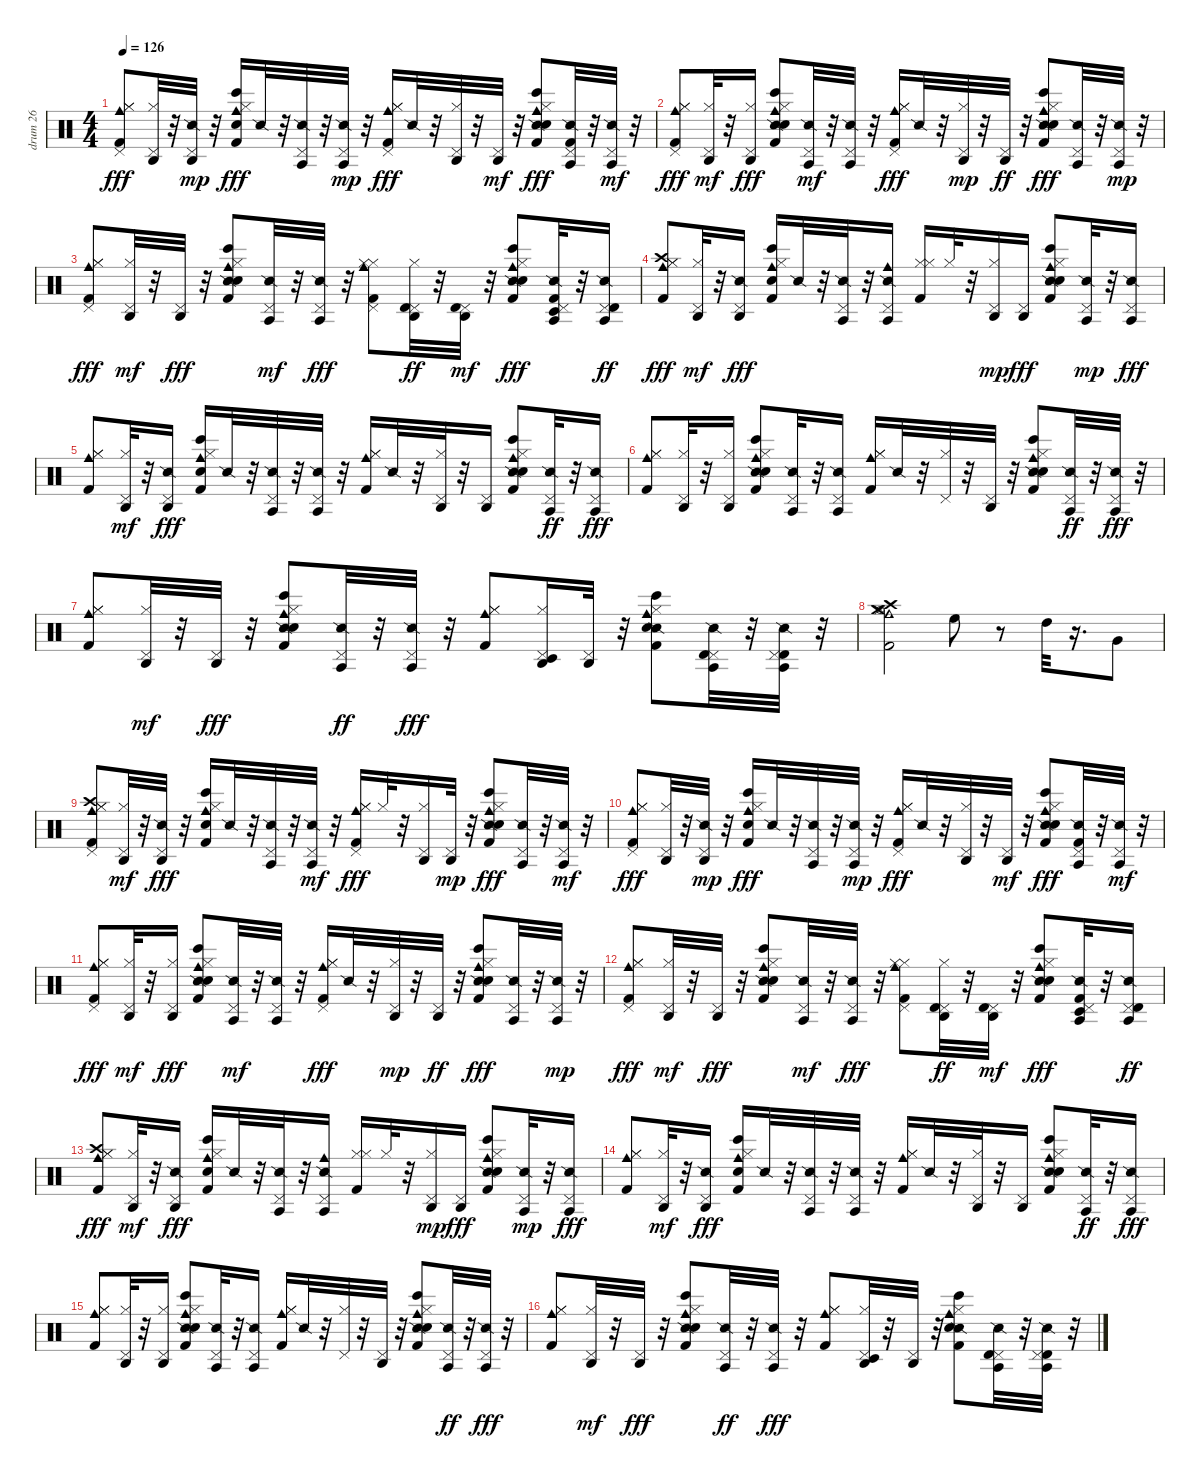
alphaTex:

\track ("drum 26" "drum 26") {instrument percussion}
\staff {score}
\articulation defaults
\ts (4 4)
\tempo 126
\clef neutral
\ks c
("Hi-Hat (closed)" "Kick (hit) 2" "Hi-Hat (closed)" "Pedal Hi-Hat (hit)" "Cowbell medium (hit)").8{dy fff} ("Hi-Hat (closed)" "Pedal Hi-Hat (hit)" "Agogo high (hit)").32 r.32 ("Snare (side stick) 2" "Pedal Hi-Hat (hit)" "Agogo high (hit)").32{dy mp} r.32 ("Bongo High (hit)" "Kick (hit) 2" "Hand Clap (hit)" "Hi-Hat (closed)" "Cowbell medium (hit)").16{dy fff} "Snare (side stick) 2".32 r.32 ("Snare (side stick) 2" "Pedal Hi-Hat (hit)" "Agogo tow (hit)").32 r.32 ("Snare (side stick) 2" "Pedal Hi-Hat (hit)" "Agogo tow (hit)").32{dy mp} r.32 ("Hi-Hat (closed)" "Kick (hit) 2" "Hi-Hat (closed)" "Pedal Hi-Hat (hit)" "Cowbell medium (hit)").16{dy fff} "Snare (side stick) 2".32 r.32 ("Hi-Hat (closed)" "Pedal Hi-Hat (hit)" "Agogo high (hit)").32 r.32 ("Pedal Hi-Hat (hit)" "Agogo high (hit)").32{dy mf} r.32 ("Bongo High (hit)" "Snare (side stick) 2" "Kick (hit) 2" "Hand Clap (hit)" "Hi-Hat (closed)" "Cowbell medium (hit)").8{dy fff} ("Snare (side stick) 2" "Kick (hit) 2" "Pedal Hi-Hat (hit)" "Agogo tow (hit)").32 r.32 ("Snare (side stick) 2" "Pedal Hi-Hat (hit)" "Agogo tow (hit)").32{dy mf} r.32 |
("Hi-Hat (closed)" "Kick (hit) 2" "Hi-Hat (closed)" "Pedal Hi-Hat (hit)" "Cowbell medium (hit)").8{dy fff} ("Hi-Hat (closed)" "Pedal Hi-Hat (hit)" "Agogo high (hit)").32{dy mf} r.32 ("Hi-Hat (closed)" "Pedal Hi-Hat (hit)" "Agogo high (hit)").16{dy fff} ("Bongo High (hit)" "Snare (side stick) 2" "Kick (hit) 2" "Hand Clap (hit)" "Hi-Hat (closed)" "Cowbell medium (hit)").8 ("Snare (side stick) 2" "Pedal Hi-Hat (hit)" "Agogo tow (hit)").32{dy mf} r.32 ("Snare (side stick) 2" "Pedal Hi-Hat (hit)" "Agogo tow (hit)").32 r.32 ("Hi-Hat (closed)" "Kick (hit) 2" "Hi-Hat (closed)" "Pedal Hi-Hat (hit)" "Cowbell medium (hit)").16{dy fff} "Snare (side stick) 2".32 r.32 ("Hi-Hat (closed)" "Pedal Hi-Hat (hit)" "Agogo high (hit)").32{dy mp} r.32 ("Pedal Hi-Hat (hit)" "Agogo high (hit)").32{dy ff} r.32 ("Bongo High (hit)" "Snare (side stick) 2" "Kick (hit) 2" "Hand Clap (hit)" "Hi-Hat (closed)" "Cowbell medium (hit)").8{dy fff} ("Snare (side stick) 2" "Pedal Hi-Hat (hit)" "Agogo tow (hit)").32 r.32 ("Snare (side stick) 2" "Pedal Hi-Hat (hit)" "Agogo tow (hit)").32{dy mp} r.32 |
("Hi-Hat (closed)" "Kick (hit) 2" "Hi-Hat (closed)" "Pedal Hi-Hat (hit)" "Cowbell medium (hit)").8{dy fff} ("Hi-Hat (closed)" "Pedal Hi-Hat (hit)" "Agogo high (hit)").32{dy mf} r.32 ("Pedal Hi-Hat (hit)" "Agogo high (hit)").32{dy fff} r.32 ("Bongo High (hit)" "Snare (side stick) 2" "Kick (hit) 2" "Hand Clap (hit)" "Hi-Hat (closed)" "Cowbell medium (hit)").8 ("Snare (side stick) 2" "Pedal Hi-Hat (hit)" "Agogo tow (hit)").32{dy mf} r.32 ("Snare (side stick) 2" "Pedal Hi-Hat (hit)" "Agogo tow (hit)").32{dy fff} r.32 ("Hi-Hat (closed)" "Kick (hit) 2" "Hi-Hat (closed)" "Pedal Hi-Hat (hit)" "Cowbell medium (hit)").8 ("Hi-Hat (closed)" "Pedal Hi-Hat (hit)" "Timbale high (hit)" "Agogo high (hit)").32{dy ff} r.32 ("Pedal Hi-Hat (hit)" "Timbale high (hit)" "Agogo high (hit)").32{dy mf} r.32 ("Bongo High (hit)" "Snare (side stick) 2" "Kick (hit) 2" "Hand Clap (hit)" "Hi-Hat (closed)" "Cowbell medium (hit)").8{dy fff} ("Snare (side stick) 2" "Kick (hit) 2" "Pedal Hi-Hat (hit)" "Timbale low (hit)" "Agogo tow (hit)").32 r.32 ("Snare (side stick) 2" "Pedal Hi-Hat (hit)" "Timbale high (hit)" "Agogo tow (hit)").16{dy ff} |
("Hi-Hat (closed)" "Kick (hit) 2" "Hi-Hat (closed)" "Crash high (hit)" "Cowbell medium (hit)").8{dy fff} ("Hi-Hat (closed)" "Pedal Hi-Hat (hit)" "Agogo high (hit)").32{dy mf} r.32 ("Snare (side stick) 2" "Agogo high (hit)" "Pedal Hi-Hat (hit)").16{dy fff} ("Bongo High (hit)" "Kick (hit) 2" "Hand Clap (hit)" "Hi-Hat (closed)" "Cowbell medium (hit)").16 "Snare (side stick) 2".32 r.32 ("Snare (side stick) 2" "Pedal Hi-Hat (hit)" "Agogo tow (hit)").32 r.32 ("Snare (side stick) 2" "Cowbell medium (hit)" "Agogo tow (hit)" "Pedal Hi-Hat (hit)").16 ("Hi-Hat (closed)" "Kick (hit) 2" "Hi-Hat (closed)").16 "Hi-Hat (closed)".32 r.32 ("Hi-Hat (closed)" "Pedal Hi-Hat (hit)" "Agogo high (hit)").16{dy mp} ("Agogo high (hit)" "Pedal Hi-Hat (hit)").16{dy fff} ("Bongo High (hit)" "Snare (side stick) 2" "Kick (hit) 2" "Hand Clap (hit)" "Hi-Hat (closed)" "Cowbell medium (hit)").8 ("Snare (side stick) 2" "Pedal Hi-Hat (hit)" "Agogo tow (hit)").32{dy mp} r.32 ("Snare (side stick) 2" "Agogo tow (hit)" "Pedal Hi-Hat (hit)").16{dy fff} |
("Hi-Hat (closed)" "Kick (hit) 2" "Hi-Hat (closed)" "Cowbell medium (hit)").8 ("Hi-Hat (closed)" "Pedal Hi-Hat (hit)" "Agogo high (hit)").32{dy mf} r.32 ("Snare (side stick) 2" "Agogo high (hit)" "Pedal Hi-Hat (hit)").16{dy fff} ("Bongo High (hit)" "Kick (hit) 2" "Hand Clap (hit)" "Hi-Hat (closed)" "Cowbell medium (hit)").16 "Snare (side stick) 2".32 r.32 ("Snare (side stick) 2" "Pedal Hi-Hat (hit)" "Agogo tow (hit)").32 r.32 ("Snare (side stick) 2" "Agogo tow (hit)" "Pedal Hi-Hat (hit)").32 r.32 ("Hi-Hat (closed)" "Kick (hit) 2" "Hi-Hat (closed)" "Cowbell medium (hit)").16 "Snare (side stick) 2".32 r.32 ("Hi-Hat (closed)" "Pedal Hi-Hat (hit)" "Agogo high (hit)").32 r.32 ("Agogo high (hit)" "Pedal Hi-Hat (hit)").16 ("Bongo High (hit)" "Snare (side stick) 2" "Kick (hit) 2" "Hand Clap (hit)" "Hi-Hat (closed)" "Cowbell medium (hit)").8 ("Snare (side stick) 2" "Pedal Hi-Hat (hit)" "Agogo tow (hit)").32{dy ff} r.32 ("Snare (side stick) 2" "Agogo tow (hit)" "Pedal Hi-Hat (hit)").16{dy fff} |
("Hi-Hat (closed)" "Kick (hit) 2" "Hi-Hat (closed)" "Cowbell medium (hit)").8 ("Hi-Hat (closed)" "Pedal Hi-Hat (hit)" "Agogo high (hit)").32 r.32 ("Hi-Hat (closed)" "Agogo high (hit)" "Pedal Hi-Hat (hit)").16 ("Bongo High (hit)" "Snare (side stick) 2" "Kick (hit) 2" "Hand Clap (hit)" "Hi-Hat (closed)" "Cowbell medium (hit)").8 ("Snare (side stick) 2" "Pedal Hi-Hat (hit)" "Agogo tow (hit)").32 r.32 ("Snare (side stick) 2" "Agogo tow (hit)" "Pedal Hi-Hat (hit)").16 ("Hi-Hat (closed)" "Kick (hit) 2" "Hi-Hat (closed)" "Cowbell medium (hit)").16 "Snare (side stick) 2".32 r.32 ("Hi-Hat (closed)" "Pedal Hi-Hat (hit)").32 r.32 ("Agogo high (hit)" "Pedal Hi-Hat (hit)").32 r.32 ("Bongo High (hit)" "Snare (side stick) 2" "Kick (hit) 2" "Hand Clap (hit)" "Hi-Hat (closed)" "Cowbell medium (hit)").8 ("Snare (side stick) 2" "Pedal Hi-Hat (hit)" "Agogo tow (hit)").32{dy ff} r.32 ("Snare (side stick) 2" "Agogo tow (hit)" "Pedal Hi-Hat (hit)").32{dy fff} r.32 |
("Hi-Hat (closed)" "Kick (hit) 2" "Hi-Hat (closed)" "Cowbell medium (hit)").8 ("Hi-Hat (closed)" "Pedal Hi-Hat (hit)" "Agogo high (hit)").32{dy mf} r.32 ("Agogo high (hit)" "Pedal Hi-Hat (hit)").32{dy fff} r.32 ("Bongo High (hit)" "Snare (side stick) 2" "Kick (hit) 2" "Hand Clap (hit)" "Hi-Hat (closed)" "Cowbell medium (hit)").8 ("Snare (side stick) 2" "Pedal Hi-Hat (hit)" "Agogo tow (hit)").32{dy ff} r.32 ("Snare (side stick) 2" "Agogo tow (hit)" "Pedal Hi-Hat (hit)").32{dy fff} r.32 ("Hi-Hat (closed)" "Kick (hit) 2" "Hi-Hat (closed)" "Cowbell medium (hit)").8 ("Hi-Hat (closed)" "Pedal Hi-Hat (hit)" "Timbale low (hit)" "Agogo high (hit)").16 ("Agogo high (hit)" "Pedal Hi-Hat (hit)").32 r.32 ("Bongo High (hit)" "Snare (side stick) 2" "Kick (hit) 2" "Hand Clap (hit)" "Hi-Hat (closed)" "Cowbell medium (hit)").8 ("Snare (side stick) 2" "Pedal Hi-Hat (hit)" "Timbale high (hit)" "Agogo tow (hit)").32 r.32 ("Snare (side stick) 2" "Timbale high (hit)" "Agogo tow (hit)" "Pedal Hi-Hat (hit)").32 r.32 |
("Hi-Hat (closed)" "Kick (hit) 2" "Hi-Hat (open)" "Crash high (hit)" "Cowbell medium (hit)" "Crash medium (hit)").2 "High Floor Tom (hit)".8 r.8 "High Tom (hit)".32 r.16{d} "Very Low Tom (hit)".8 |
("Hi-Hat (closed)" "Kick (hit) 2" "Hi-Hat (closed)" "Pedal Hi-Hat (hit)" "Crash high (hit)" "Cowbell medium (hit)").8 ("Hi-Hat (closed)" "Pedal Hi-Hat (hit)" "Agogo high (hit)").32{dy mf} r.32 ("Snare (side stick) 2" "Pedal Hi-Hat (hit)" "Agogo high (hit)").32{dy fff} r.32 ("Bongo High (hit)" "Kick (hit) 2" "Hand Clap (hit)" "Hi-Hat (closed)" "Cowbell medium (hit)").16 "Snare (side stick) 2".32 r.32 ("Snare (side stick) 2" "Pedal Hi-Hat (hit)" "Agogo tow (hit)").32 r.32 ("Snare (side stick) 2" "Pedal Hi-Hat (hit)" "Agogo tow (hit)").32{dy mf} r.32 ("Hi-Hat (closed)" "Kick (hit) 2" "Hi-Hat (closed)" "Pedal Hi-Hat (hit)" "Cowbell medium (hit)").16{dy fff} "Hi-Hat (closed)".32 r.32 ("Hi-Hat (closed)" "Pedal Hi-Hat (hit)" "Agogo high (hit)").16 ("Pedal Hi-Hat (hit)" "Agogo high (hit)").32{dy mp} r.32 ("Bongo High (hit)" "Snare (side stick) 2" "Kick (hit) 2" "Hand Clap (hit)" "Hi-Hat (closed)" "Cowbell medium (hit)").8{dy fff} ("Snare (side stick) 2" "Pedal Hi-Hat (hit)" "Agogo tow (hit)").32 r.32 ("Snare (side stick) 2" "Pedal Hi-Hat (hit)" "Agogo tow (hit)").32{dy mf} r.32 |
("Hi-Hat (closed)" "Kick (hit) 2" "Hi-Hat (closed)" "Pedal Hi-Hat (hit)" "Cowbell medium (hit)").8{dy fff} ("Hi-Hat (closed)" "Pedal Hi-Hat (hit)" "Agogo high (hit)").32 r.32 ("Snare (side stick) 2" "Pedal Hi-Hat (hit)" "Agogo high (hit)").32{dy mp} r.32 ("Bongo High (hit)" "Kick (hit) 2" "Hand Clap (hit)" "Hi-Hat (closed)" "Cowbell medium (hit)").16{dy fff} "Snare (side stick) 2".32 r.32 ("Snare (side stick) 2" "Pedal Hi-Hat (hit)" "Agogo tow (hit)").32 r.32 ("Snare (side stick) 2" "Pedal Hi-Hat (hit)" "Agogo tow (hit)").32{dy mp} r.32 ("Hi-Hat (closed)" "Kick (hit) 2" "Hi-Hat (closed)" "Pedal Hi-Hat (hit)" "Cowbell medium (hit)").16{dy fff} "Snare (side stick) 2".32 r.32 ("Hi-Hat (closed)" "Pedal Hi-Hat (hit)" "Agogo high (hit)").32 r.32 ("Pedal Hi-Hat (hit)" "Agogo high (hit)").32{dy mf} r.32 ("Bongo High (hit)" "Snare (side stick) 2" "Kick (hit) 2" "Hand Clap (hit)" "Hi-Hat (closed)" "Cowbell medium (hit)").8{dy fff} ("Snare (side stick) 2" "Kick (hit) 2" "Pedal Hi-Hat (hit)" "Agogo tow (hit)").32 r.32 ("Snare (side stick) 2" "Pedal Hi-Hat (hit)" "Agogo tow (hit)").32{dy mf} r.32 |
("Hi-Hat (closed)" "Kick (hit) 2" "Hi-Hat (closed)" "Pedal Hi-Hat (hit)" "Cowbell medium (hit)").8{dy fff} ("Hi-Hat (closed)" "Pedal Hi-Hat (hit)" "Agogo high (hit)").32{dy mf} r.32 ("Hi-Hat (closed)" "Pedal Hi-Hat (hit)" "Agogo high (hit)").16{dy fff} ("Bongo High (hit)" "Snare (side stick) 2" "Kick (hit) 2" "Hand Clap (hit)" "Hi-Hat (closed)" "Cowbell medium (hit)").8 ("Snare (side stick) 2" "Pedal Hi-Hat (hit)" "Agogo tow (hit)").32{dy mf} r.32 ("Snare (side stick) 2" "Pedal Hi-Hat (hit)" "Agogo tow (hit)").32 r.32 ("Hi-Hat (closed)" "Kick (hit) 2" "Hi-Hat (closed)" "Pedal Hi-Hat (hit)" "Cowbell medium (hit)").16{dy fff} "Snare (side stick) 2".32 r.32 ("Hi-Hat (closed)" "Pedal Hi-Hat (hit)" "Agogo high (hit)").32{dy mp} r.32 ("Pedal Hi-Hat (hit)" "Agogo high (hit)").32{dy ff} r.32 ("Bongo High (hit)" "Snare (side stick) 2" "Kick (hit) 2" "Hand Clap (hit)" "Hi-Hat (closed)" "Cowbell medium (hit)").8{dy fff} ("Snare (side stick) 2" "Pedal Hi-Hat (hit)" "Agogo tow (hit)").32 r.32 ("Snare (side stick) 2" "Pedal Hi-Hat (hit)" "Agogo tow (hit)").32{dy mp} r.32 |
("Hi-Hat (closed)" "Kick (hit) 2" "Hi-Hat (closed)" "Pedal Hi-Hat (hit)" "Cowbell medium (hit)").8{dy fff} ("Hi-Hat (closed)" "Pedal Hi-Hat (hit)" "Agogo high (hit)").32{dy mf} r.32 ("Pedal Hi-Hat (hit)" "Agogo high (hit)").32{dy fff} r.32 ("Bongo High (hit)" "Snare (side stick) 2" "Kick (hit) 2" "Hand Clap (hit)" "Hi-Hat (closed)" "Cowbell medium (hit)").8 ("Snare (side stick) 2" "Pedal Hi-Hat (hit)" "Agogo tow (hit)").32{dy mf} r.32 ("Snare (side stick) 2" "Pedal Hi-Hat (hit)" "Agogo tow (hit)").32{dy fff} r.32 ("Hi-Hat (closed)" "Kick (hit) 2" "Hi-Hat (closed)" "Pedal Hi-Hat (hit)" "Cowbell medium (hit)").8 ("Hi-Hat (closed)" "Pedal Hi-Hat (hit)" "Timbale high (hit)" "Agogo high (hit)").32{dy ff} r.32 ("Pedal Hi-Hat (hit)" "Timbale high (hit)" "Agogo high (hit)").32{dy mf} r.32 ("Bongo High (hit)" "Snare (side stick) 2" "Kick (hit) 2" "Hand Clap (hit)" "Hi-Hat (closed)" "Cowbell medium (hit)").8{dy fff} ("Snare (side stick) 2" "Kick (hit) 2" "Pedal Hi-Hat (hit)" "Timbale low (hit)" "Agogo tow (hit)").32 r.32 ("Snare (side stick) 2" "Pedal Hi-Hat (hit)" "Timbale high (hit)" "Agogo tow (hit)").16{dy ff} |
("Hi-Hat (closed)" "Kick (hit) 2" "Hi-Hat (closed)" "Crash high (hit)" "Cowbell medium (hit)").8{dy fff} ("Hi-Hat (closed)" "Pedal Hi-Hat (hit)" "Agogo high (hit)").32{dy mf} r.32 ("Snare (side stick) 2" "Agogo high (hit)" "Pedal Hi-Hat (hit)").16{dy fff} ("Bongo High (hit)" "Kick (hit) 2" "Hand Clap (hit)" "Hi-Hat (closed)" "Cowbell medium (hit)").16 "Snare (side stick) 2".32 r.32 ("Snare (side stick) 2" "Pedal Hi-Hat (hit)" "Agogo tow (hit)").32 r.32 ("Snare (side stick) 2" "Cowbell medium (hit)" "Agogo tow (hit)" "Pedal Hi-Hat (hit)").16 ("Hi-Hat (closed)" "Kick (hit) 2" "Hi-Hat (closed)").16 "Hi-Hat (closed)".32 r.32 ("Hi-Hat (closed)" "Pedal Hi-Hat (hit)" "Agogo high (hit)").16{dy mp} ("Agogo high (hit)" "Pedal Hi-Hat (hit)").16{dy fff} ("Bongo High (hit)" "Snare (side stick) 2" "Kick (hit) 2" "Hand Clap (hit)" "Hi-Hat (closed)" "Cowbell medium (hit)").8 ("Snare (side stick) 2" "Pedal Hi-Hat (hit)" "Agogo tow (hit)").32{dy mp} r.32 ("Snare (side stick) 2" "Agogo tow (hit)" "Pedal Hi-Hat (hit)").16{dy fff} |
("Hi-Hat (closed)" "Kick (hit) 2" "Hi-Hat (closed)" "Cowbell medium (hit)").8 ("Hi-Hat (closed)" "Pedal Hi-Hat (hit)" "Agogo high (hit)").32{dy mf} r.32 ("Snare (side stick) 2" "Agogo high (hit)" "Pedal Hi-Hat (hit)").16{dy fff} ("Bongo High (hit)" "Kick (hit) 2" "Hand Clap (hit)" "Hi-Hat (closed)" "Cowbell medium (hit)").16 "Snare (side stick) 2".32 r.32 ("Snare (side stick) 2" "Pedal Hi-Hat (hit)" "Agogo tow (hit)").32 r.32 ("Snare (side stick) 2" "Agogo tow (hit)" "Pedal Hi-Hat (hit)").32 r.32 ("Hi-Hat (closed)" "Kick (hit) 2" "Hi-Hat (closed)" "Cowbell medium (hit)").16 "Snare (side stick) 2".32 r.32 ("Hi-Hat (closed)" "Pedal Hi-Hat (hit)" "Agogo high (hit)").32 r.32 ("Agogo high (hit)" "Pedal Hi-Hat (hit)").16 ("Bongo High (hit)" "Snare (side stick) 2" "Kick (hit) 2" "Hand Clap (hit)" "Hi-Hat (closed)" "Cowbell medium (hit)").8 ("Snare (side stick) 2" "Pedal Hi-Hat (hit)" "Agogo tow (hit)").32{dy ff} r.32 ("Snare (side stick) 2" "Agogo tow (hit)" "Pedal Hi-Hat (hit)").16{dy fff} |
("Hi-Hat (closed)" "Kick (hit) 2" "Hi-Hat (closed)" "Cowbell medium (hit)").8 ("Hi-Hat (closed)" "Pedal Hi-Hat (hit)" "Agogo high (hit)").32 r.32 ("Hi-Hat (closed)" "Agogo high (hit)" "Pedal Hi-Hat (hit)").16 ("Bongo High (hit)" "Snare (side stick) 2" "Kick (hit) 2" "Hand Clap (hit)" "Hi-Hat (closed)" "Cowbell medium (hit)").8 ("Snare (side stick) 2" "Pedal Hi-Hat (hit)" "Agogo tow (hit)").32 r.32 ("Snare (side stick) 2" "Agogo tow (hit)" "Pedal Hi-Hat (hit)").16 ("Hi-Hat (closed)" "Kick (hit) 2" "Hi-Hat (closed)" "Cowbell medium (hit)").16 "Snare (side stick) 2".32 r.32 ("Hi-Hat (closed)" "Pedal Hi-Hat (hit)").32 r.32 ("Agogo high (hit)" "Pedal Hi-Hat (hit)").32 r.32 ("Bongo High (hit)" "Snare (side stick) 2" "Kick (hit) 2" "Hand Clap (hit)" "Hi-Hat (closed)" "Cowbell medium (hit)").8 ("Snare (side stick) 2" "Pedal Hi-Hat (hit)" "Agogo tow (hit)").32{dy ff} r.32 ("Snare (side stick) 2" "Agogo tow (hit)" "Pedal Hi-Hat (hit)").32{dy fff} r.32 |
("Hi-Hat (closed)" "Kick (hit) 2" "Hi-Hat (closed)" "Cowbell medium (hit)").8 ("Hi-Hat (closed)" "Pedal Hi-Hat (hit)" "Agogo high (hit)").32{dy mf} r.32 ("Agogo high (hit)" "Pedal Hi-Hat (hit)").32{dy fff} r.32 ("Bongo High (hit)" "Snare (side stick) 2" "Kick (hit) 2" "Hand Clap (hit)" "Hi-Hat (closed)" "Cowbell medium (hit)").8 ("Snare (side stick) 2" "Pedal Hi-Hat (hit)" "Agogo tow (hit)").32{dy ff} r.32 ("Snare (side stick) 2" "Agogo tow (hit)" "Pedal Hi-Hat (hit)").32{dy fff} r.32 ("Hi-Hat (closed)" "Kick (hit) 2" "Hi-Hat (closed)" "Cowbell medium (hit)").8 ("Hi-Hat (closed)" "Pedal Hi-Hat (hit)" "Timbale low (hit)" "Agogo high (hit)").32 r.32 ("Agogo high (hit)" "Pedal Hi-Hat (hit)").32 r.32 ("Bongo High (hit)" "Snare (side stick) 2" "Kick (hit) 2" "Hand Clap (hit)" "Hi-Hat (closed)" "Cowbell medium (hit)").8 ("Snare (side stick) 2" "Pedal Hi-Hat (hit)" "Timbale high (hit)" "Agogo tow (hit)").32 r.32 ("Snare (side stick) 2" "Timbale high (hit)" "Agogo tow (hit)" "Pedal Hi-Hat (hit)").32 r.32
